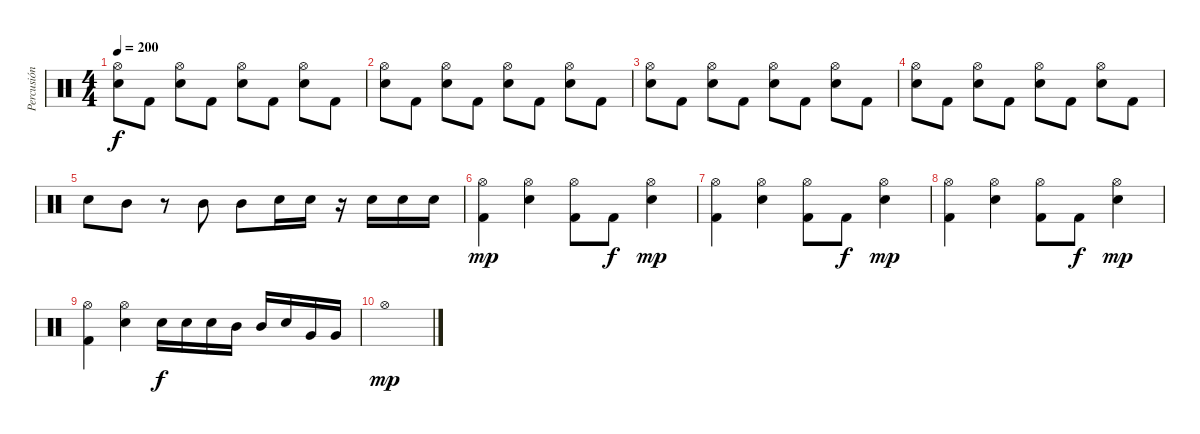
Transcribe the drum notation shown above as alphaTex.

\track ("Percusión" "Percusión") {instrument percussion}
\staff {score}
\articulation defaults
\ts (4 4)
\tempo 200
\clef neutral
\ks c
("Hi-Hat (open)" "Electric Snare (hit)").8{dy f} "Kick (hit) 2".8 ("Hi-Hat (open)" "Electric Snare (hit)").8 "Kick (hit) 2".8 ("Hi-Hat (open)" "Electric Snare (hit)").8 "Kick (hit) 2".8 ("Hi-Hat (open)" "Electric Snare (hit)").8 "Kick (hit) 2".8 |
("Hi-Hat (open)" "Electric Snare (hit)").8 "Kick (hit) 2".8 ("Hi-Hat (open)" "Electric Snare (hit)").8 "Kick (hit) 2".8 ("Hi-Hat (open)" "Electric Snare (hit)").8 "Kick (hit) 2".8 ("Hi-Hat (open)" "Electric Snare (hit)").8 "Kick (hit) 2".8 |
("Hi-Hat (open)" "Electric Snare (hit)").8 "Kick (hit) 2".8 ("Hi-Hat (open)" "Electric Snare (hit)").8 "Kick (hit) 2".8 ("Hi-Hat (open)" "Electric Snare (hit)").8 "Kick (hit) 2".8 ("Hi-Hat (open)" "Electric Snare (hit)").8 "Kick (hit) 2".8 |
("Hi-Hat (open)" "Electric Snare (hit)").8 "Kick (hit) 2".8 ("Hi-Hat (open)" "Electric Snare (hit)").8 "Kick (hit) 2".8 ("Hi-Hat (open)" "Electric Snare (hit)").8 "Kick (hit) 2".8 ("Hi-Hat (open)" "Electric Snare (hit)").8 "Kick (hit) 2".8 |
"Electric Snare (hit)".8 "Mid Tom (hit)".8 r.8 "Mid Tom (hit)".8 "Mid Tom (hit)".8 "Electric Snare (hit)".16 "Electric Snare (hit)".16 r.16 "Electric Snare (hit)".16 "Electric Snare (hit)".16 "Electric Snare (hit)".16 |
("Hi-Hat (open)" "Kick (hit) 2").4{dy mp} ("Hi-Hat (open)" "Electric Snare (hit)").4 ("Hi-Hat (open)" "Kick (hit) 2").8 "Kick (hit) 2".8{dy f} ("Hi-Hat (open)" "Electric Snare (hit)").4{dy mp} |
("Hi-Hat (open)" "Kick (hit) 2").4 ("Hi-Hat (open)" "Electric Snare (hit)").4 ("Hi-Hat (open)" "Kick (hit) 2").8 "Kick (hit) 2".8{dy f} ("Hi-Hat (open)" "Electric Snare (hit)").4{dy mp} |
("Hi-Hat (open)" "Kick (hit) 2").4 ("Hi-Hat (open)" "Electric Snare (hit)").4 ("Hi-Hat (open)" "Kick (hit) 2").8 "Kick (hit) 2".8{dy f} ("Hi-Hat (open)" "Electric Snare (hit)").4{dy mp} |
("Hi-Hat (open)" "Kick (hit) 2").4 ("Hi-Hat (open)" "Electric Snare (hit)").4 "Electric Snare (hit)".16{dy f} "Electric Snare (hit)".16 "Electric Snare (hit)".16 "Mid Tom (hit)".16 "Mid Tom (hit)".16 "Electric Snare (hit)".16 "Very Low Tom (hit)".16 "Very Low Tom (hit)".16 |
"Hi-Hat (open)".1{dy mp}
